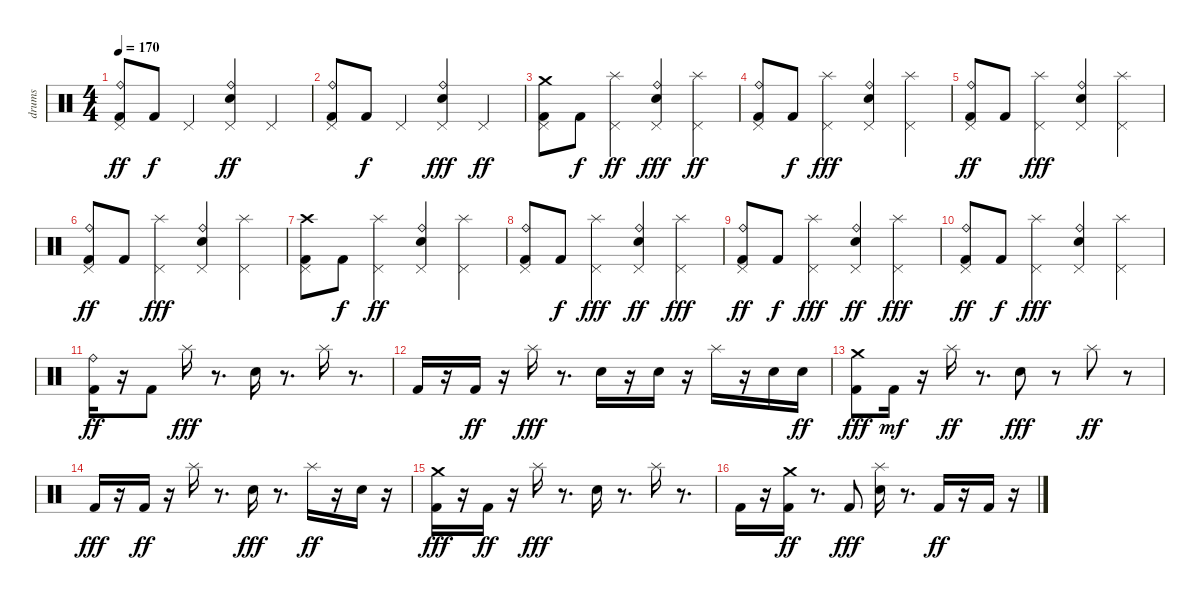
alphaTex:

\track ("drums" "drums") {instrument percussion}
\staff {score}
\articulation defaults
\ts (4 4)
\tempo 170
\clef neutral
\ks c
("Pedal Hi-Hat (hit)" "Kick (hit) 2" "Ride (bell)").8{dy ff} "Kick (hit) 2".8{dy f} "Pedal Hi-Hat (hit)".4 ("Pedal Hi-Hat (hit)" "Snare (hit) 2" "Ride (bell)").4{dy ff} "Pedal Hi-Hat (hit)".4 |
("Pedal Hi-Hat (hit)" "Kick (hit) 2" "Ride (bell)").8 "Kick (hit) 2".8{dy f} "Pedal Hi-Hat (hit)".4 ("Pedal Hi-Hat (hit)" "Ride (bell)" "Snare (hit) 2").4{dy fff} "Pedal Hi-Hat (hit)".4{dy ff} |
("Pedal Hi-Hat (hit)" "Crash medium (hit)" "Kick (hit) 2").8 "Kick (hit) 2".8{dy f} ("Pedal Hi-Hat (hit)" "Splash (hit)").4{dy ff} ("Pedal Hi-Hat (hit)" "Ride (bell)" "Snare (hit) 2").4{dy fff} ("Pedal Hi-Hat (hit)" "Splash (hit)").4{dy ff} |
("Pedal Hi-Hat (hit)" "Ride (bell)" "Kick (hit) 2").8 "Kick (hit) 2".8{dy f} ("Pedal Hi-Hat (hit)" "Splash (hit)").4{dy fff} ("Pedal Hi-Hat (hit)" "Snare (hit) 2" "Ride (bell)").4 ("Pedal Hi-Hat (hit)" "Splash (hit)").4 |
("Pedal Hi-Hat (hit)" "Kick (hit) 2" "Ride (bell)").8{dy ff} "Kick (hit) 2".8 ("Pedal Hi-Hat (hit)" "Splash (hit)").4{dy fff} ("Pedal Hi-Hat (hit)" "Snare (hit) 2" "Ride (bell)").4 ("Pedal Hi-Hat (hit)" "Splash (hit)").4 |
("Pedal Hi-Hat (hit)" "Kick (hit) 2" "Ride (bell)").8{dy ff} "Kick (hit) 2".8 ("Pedal Hi-Hat (hit)" "Splash (hit)").4{dy fff} ("Pedal Hi-Hat (hit)" "Snare (hit) 2" "Ride (bell)").4 ("Pedal Hi-Hat (hit)" "Splash (hit)").4 |
("Pedal Hi-Hat (hit)" "Kick (hit) 2" "Crash high (hit)").8 "Kick (hit) 2".8{dy f} ("Pedal Hi-Hat (hit)" "Splash (hit)").4{dy ff} ("Pedal Hi-Hat (hit)" "Snare (hit) 2" "Ride (bell)").4 ("Pedal Hi-Hat (hit)" "Splash (hit)").4 |
("Pedal Hi-Hat (hit)" "Kick (hit) 2" "Ride (bell)").8 "Kick (hit) 2".8{dy f} ("Pedal Hi-Hat (hit)" "Splash (hit)").4{dy fff} ("Pedal Hi-Hat (hit)" "Snare (hit) 2" "Ride (bell)").4{dy ff} ("Pedal Hi-Hat (hit)" "Splash (hit)").4{dy fff} |
("Pedal Hi-Hat (hit)" "Kick (hit) 2" "Ride (bell)").8{dy ff} "Kick (hit) 2".8{dy f} ("Pedal Hi-Hat (hit)" "Splash (hit)").4{dy fff} ("Pedal Hi-Hat (hit)" "Snare (hit) 2" "Ride (bell)").4{dy ff} ("Pedal Hi-Hat (hit)" "Splash (hit)").4{dy fff} |
("Pedal Hi-Hat (hit)" "Kick (hit) 2" "Ride (bell)").8{dy ff} "Kick (hit) 2".8{dy f} ("Pedal Hi-Hat (hit)" "Splash (hit)").4{dy fff} ("Pedal Hi-Hat (hit)" "Ride (bell)" "Snare (hit) 2").4 ("Pedal Hi-Hat (hit)" "Splash (hit)").4 |
("Kick (hit) 2" "Ride (bell)").16{dy ff} r.16 "Kick (hit) 2".8 "Splash (hit)".16{dy fff} r.8{d} "Snare (hit) 2".16 r.8{d} "Splash (hit)".16 r.8{d} |
"Kick (hit) 2".16 r.16 "Kick (hit) 2".16{dy ff} r.16 "Splash (hit)".16{dy fff} r.8{d} "Snare (hit) 2".16 r.16 "Snare (hit) 2".16 r.16 "Splash (hit)".16 r.16 "Snare (hit) 2".16 "Snare (hit) 2".16{dy ff} |
("Crash medium (hit)" "Kick (hit) 2").8{dy fff} "Kick (hit) 2".16{dy mf} r.16 "Splash (hit)".16{dy ff} r.8{d} "Snare (hit) 2".8{dy fff} r.8 "Splash (hit)".8{dy ff} r.8 |
"Kick (hit) 2".16{dy fff} r.16 "Kick (hit) 2".16{dy ff} r.16 "Splash (hit)".16 r.8{d} "Snare (hit) 2".16{dy fff} r.8{d} "Splash (hit)".16{dy ff} r.16 "Snare (hit) 2".16 r.16 |
("Crash medium (hit)" "Kick (hit) 2").16{dy fff} r.16 "Kick (hit) 2".16{dy ff} r.16 "Splash (hit)".16{dy fff} r.8{d} "Snare (hit) 2".16 r.8{d} "Splash (hit)".16 r.8{d} |
"Kick (hit) 2".16 r.16 ("Kick (hit) 2" "Crash medium (hit)").16{dy ff} r.8{d} "Kick (hit) 2".8{dy fff} ("Snare (hit) 2" "Splash (hit)").16 r.8{d} "Kick (hit) 2".16{dy ff} r.16 "Kick (hit) 2".16 r.16
